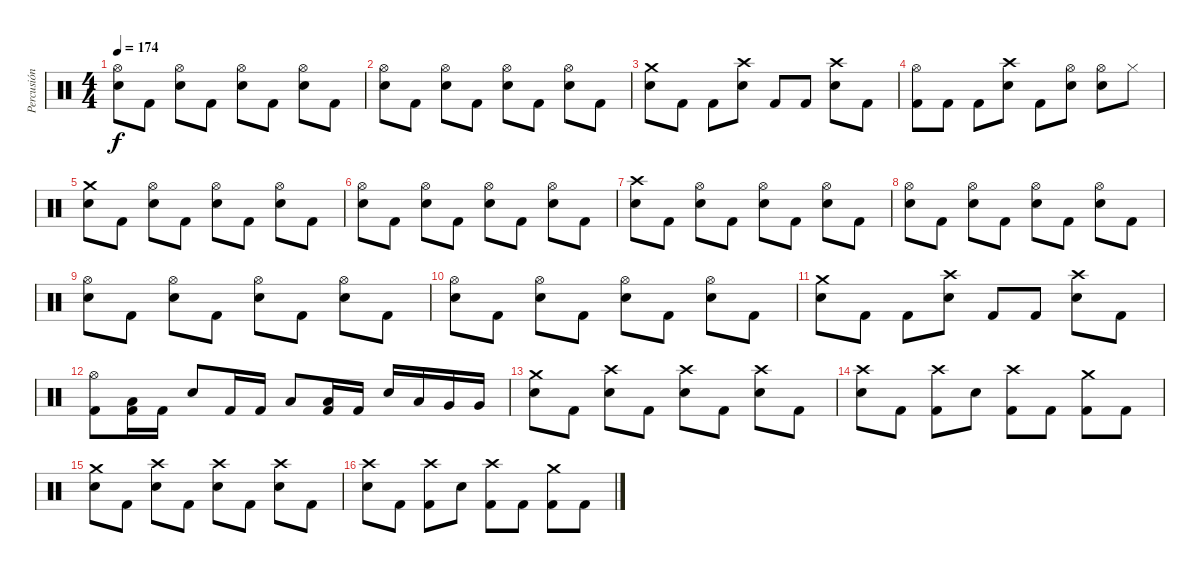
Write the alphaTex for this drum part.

\track ("Percusión" "Percusión") {instrument percussion}
\staff {score}
\articulation defaults
\ts (4 4)
\tempo 174
\clef neutral
\ks c
("Hi-Hat (open)" "Electric Snare (hit)").8{dy f} "Kick (hit) 2".8 ("Hi-Hat (open)" "Electric Snare (hit)").8 "Kick (hit) 2".8 ("Hi-Hat (open)" "Electric Snare (hit)").8 "Kick (hit) 2".8 ("Hi-Hat (open)" "Electric Snare (hit)").8 "Kick (hit) 2".8 |
("Hi-Hat (open)" "Electric Snare (hit)").8 "Kick (hit) 2".8 ("Hi-Hat (open)" "Electric Snare (hit)").8 "Kick (hit) 2".8 ("Hi-Hat (open)" "Electric Snare (hit)").8 "Kick (hit) 2".8 ("Hi-Hat (open)" "Electric Snare (hit)").8 "Kick (hit) 2".8 |
("Crash medium (hit)" "Electric Snare (hit)").8 "Kick (hit) 2".8 "Kick (hit) 2".8 ("Crash high (hit)" "Electric Snare (hit)").8 "Kick (hit) 2".8 "Kick (hit) 2".8 ("Crash high (hit)" "Electric Snare (hit)").8 "Kick (hit) 2".8 |
("Hi-Hat (open)" "Kick (hit) 2").8 "Kick (hit) 2".8 "Kick (hit) 2".8 ("Crash high (hit)" "Electric Snare (hit)").8 "Kick (hit) 2".8 ("Hi-Hat (open)" "Electric Snare (hit)").8 ("Hi-Hat (open)" "Electric Snare (hit)").8 "Hi-Hat (closed)".8 |
("Crash medium (hit)" "Electric Snare (hit)").8 "Kick (hit) 2".8 ("Hi-Hat (open)" "Electric Snare (hit)").8 "Kick (hit) 2".8 ("Hi-Hat (open)" "Electric Snare (hit)").8 "Kick (hit) 2".8 ("Hi-Hat (open)" "Electric Snare (hit)").8 "Kick (hit) 2".8 |
("Hi-Hat (open)" "Electric Snare (hit)").8 "Kick (hit) 2".8 ("Hi-Hat (open)" "Electric Snare (hit)").8 "Kick (hit) 2".8 ("Hi-Hat (open)" "Electric Snare (hit)").8 "Kick (hit) 2".8 ("Hi-Hat (open)" "Electric Snare (hit)").8 "Kick (hit) 2".8 |
("Crash high (hit)" "Electric Snare (hit)").8 "Kick (hit) 2".8 ("Hi-Hat (open)" "Electric Snare (hit)").8 "Kick (hit) 2".8 ("Hi-Hat (open)" "Electric Snare (hit)").8 "Kick (hit) 2".8 ("Hi-Hat (open)" "Electric Snare (hit)").8 "Kick (hit) 2".8 |
("Hi-Hat (open)" "Electric Snare (hit)").8 "Kick (hit) 2".8 ("Hi-Hat (open)" "Electric Snare (hit)").8 "Kick (hit) 2".8 ("Hi-Hat (open)" "Electric Snare (hit)").8 "Kick (hit) 2".8 ("Hi-Hat (open)" "Electric Snare (hit)").8 "Kick (hit) 2".8 |
("Hi-Hat (open)" "Electric Snare (hit)").8 "Kick (hit) 2".8 ("Hi-Hat (open)" "Electric Snare (hit)").8 "Kick (hit) 2".8 ("Hi-Hat (open)" "Electric Snare (hit)").8 "Kick (hit) 2".8 ("Hi-Hat (open)" "Electric Snare (hit)").8 "Kick (hit) 2".8 |
("Hi-Hat (open)" "Electric Snare (hit)").8 "Kick (hit) 2".8 ("Hi-Hat (open)" "Electric Snare (hit)").8 "Kick (hit) 2".8 ("Hi-Hat (open)" "Electric Snare (hit)").8 "Kick (hit) 2".8 ("Hi-Hat (open)" "Electric Snare (hit)").8 "Kick (hit) 2".8 |
("Crash medium (hit)" "Electric Snare (hit)").8 "Kick (hit) 2".8 "Kick (hit) 2".8 ("Crash high (hit)" "Electric Snare (hit)").8 "Kick (hit) 2".8 "Kick (hit) 2".8 ("Crash high (hit)" "Electric Snare (hit)").8 "Kick (hit) 2".8 |
("Hi-Hat (open)" "Kick (hit) 2").8 ("Low Tom (hit)" "Kick (hit) 2").16 "Kick (hit) 2".16 "Electric Snare (hit)".8 "Kick (hit) 2".16 "Kick (hit) 2".16 "Low Tom (hit)".8 ("Low Tom (hit)" "Kick (hit) 2").16 "Kick (hit) 2".16 "Electric Snare (hit)".16 "Low Tom (hit)".16 "Very Low Tom (hit)".16 "Very Low Tom (hit)".16 |
("Crash medium (hit)" "Electric Snare (hit)").8 "Kick (hit) 2".8 ("Crash high (hit)" "Electric Snare (hit)").8 "Kick (hit) 2".8 ("Crash high (hit)" "Electric Snare (hit)").8 "Kick (hit) 2".8 ("Crash high (hit)" "Electric Snare (hit)").8 "Kick (hit) 2".8 |
("Crash high (hit)" "Electric Snare (hit)").8 "Kick (hit) 2".8 ("Crash high (hit)" "Kick (hit) 2").8 "Electric Snare (hit)".8 ("Crash high (hit)" "Kick (hit) 2").8 "Kick (hit) 2".8 ("Crash medium (hit)" "Kick (hit) 2").8 "Kick (hit) 2".8 |
("Crash medium (hit)" "Electric Snare (hit)").8 "Kick (hit) 2".8 ("Crash high (hit)" "Electric Snare (hit)").8 "Kick (hit) 2".8 ("Crash high (hit)" "Electric Snare (hit)").8 "Kick (hit) 2".8 ("Crash high (hit)" "Electric Snare (hit)").8 "Kick (hit) 2".8 |
("Crash high (hit)" "Electric Snare (hit)").8 "Kick (hit) 2".8 ("Crash high (hit)" "Kick (hit) 2").8 "Electric Snare (hit)".8 ("Crash high (hit)" "Kick (hit) 2").8 "Kick (hit) 2".8 ("Crash medium (hit)" "Kick (hit) 2").8 "Kick (hit) 2".8
